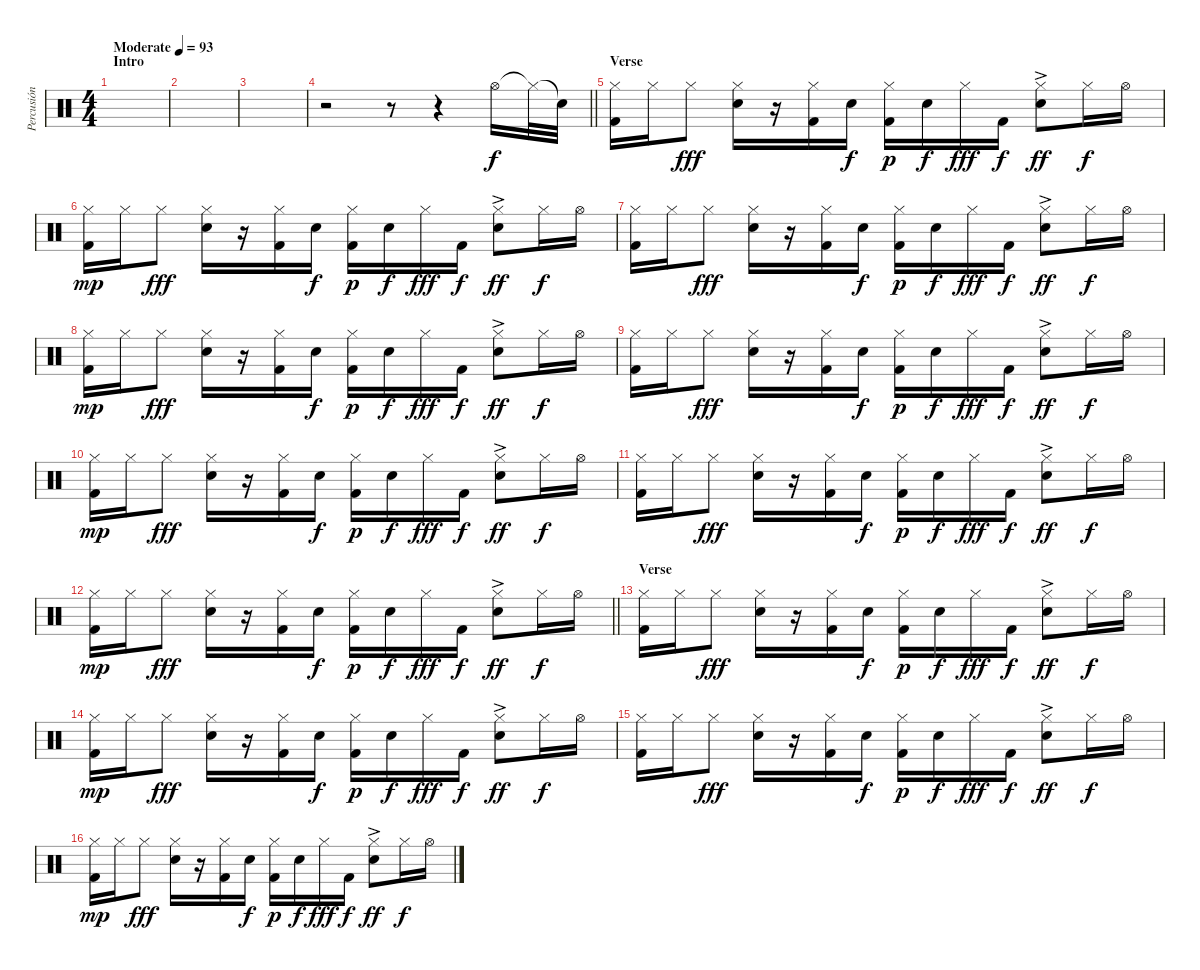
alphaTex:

\track ("Percusión" "Percusión") {instrument percussion}
\staff {score}
\articulation defaults
\ts (4 4)
\section ("" "Intro")
\tempo (93 "Moderate")
\clef neutral
\ks c
|
|
|
\barLineRight lightlight
r.2 r.8 r.4 "Hi-Hat (open)".16 "Hi-Hat (closed)"{t}.32 "Snare (hit)"{t}.32 |
\section ("" "Verse")
("Hi-Hat (closed)" "Kick (hit) 2").16 "Hi-Hat (closed)".16 "Hi-Hat (closed)".8{dy fff} ("Hi-Hat (closed)" "Snare (hit) 2").16 r.16 ("Hi-Hat (closed)" "Kick (hit) 2").16 "Snare (hit) 2".16{dy f} ("Hi-Hat (closed)" "Kick (hit) 2").16{dy p} "Snare (hit) 2".16{dy f} "Hi-Hat (closed)".16{dy fff} "Kick (hit) 2".16{dy f} ("Hi-Hat (closed)" "Snare (hit) 2"{ac}).8{dy ff} "Hi-Hat (closed)".16{dy f} "Hi-Hat (open)".16 |
("Hi-Hat (closed)" "Kick (hit) 2").16{dy mp} "Hi-Hat (closed)".16 "Hi-Hat (closed)".8{dy fff} ("Hi-Hat (closed)" "Snare (hit) 2").16 r.16 ("Hi-Hat (closed)" "Kick (hit) 2").16 "Snare (hit) 2".16{dy f} ("Hi-Hat (closed)" "Kick (hit) 2").16{dy p} "Snare (hit) 2".16{dy f} "Hi-Hat (closed)".16{dy fff} "Kick (hit) 2".16{dy f} ("Hi-Hat (closed)" "Snare (hit) 2"{ac}).8{dy ff} "Hi-Hat (closed)".16{dy f} "Hi-Hat (open)".16 |
("Hi-Hat (closed)" "Kick (hit) 2").16 "Hi-Hat (closed)".16 "Hi-Hat (closed)".8{dy fff} ("Hi-Hat (closed)" "Snare (hit) 2").16 r.16 ("Hi-Hat (closed)" "Kick (hit) 2").16 "Snare (hit) 2".16{dy f} ("Hi-Hat (closed)" "Kick (hit) 2").16{dy p} "Snare (hit) 2".16{dy f} "Hi-Hat (closed)".16{dy fff} "Kick (hit) 2".16{dy f} ("Hi-Hat (closed)" "Snare (hit) 2"{ac}).8{dy ff} "Hi-Hat (closed)".16{dy f} "Hi-Hat (open)".16 |
("Hi-Hat (closed)" "Kick (hit) 2").16{dy mp} "Hi-Hat (closed)".16 "Hi-Hat (closed)".8{dy fff} ("Hi-Hat (closed)" "Snare (hit) 2").16 r.16 ("Hi-Hat (closed)" "Kick (hit) 2").16 "Snare (hit) 2".16{dy f} ("Hi-Hat (closed)" "Kick (hit) 2").16{dy p} "Snare (hit) 2".16{dy f} "Hi-Hat (closed)".16{dy fff} "Kick (hit) 2".16{dy f} ("Hi-Hat (closed)" "Snare (hit) 2"{ac}).8{dy ff} "Hi-Hat (closed)".16{dy f} "Hi-Hat (open)".16 |
("Hi-Hat (closed)" "Kick (hit) 2").16 "Hi-Hat (closed)".16 "Hi-Hat (closed)".8{dy fff} ("Hi-Hat (closed)" "Snare (hit) 2").16 r.16 ("Hi-Hat (closed)" "Kick (hit) 2").16 "Snare (hit) 2".16{dy f} ("Hi-Hat (closed)" "Kick (hit) 2").16{dy p} "Snare (hit) 2".16{dy f} "Hi-Hat (closed)".16{dy fff} "Kick (hit) 2".16{dy f} ("Hi-Hat (closed)" "Snare (hit) 2"{ac}).8{dy ff} "Hi-Hat (closed)".16{dy f} "Hi-Hat (open)".16 |
("Hi-Hat (closed)" "Kick (hit) 2").16{dy mp} "Hi-Hat (closed)".16 "Hi-Hat (closed)".8{dy fff} ("Hi-Hat (closed)" "Snare (hit) 2").16 r.16 ("Hi-Hat (closed)" "Kick (hit) 2").16 "Snare (hit) 2".16{dy f} ("Hi-Hat (closed)" "Kick (hit) 2").16{dy p} "Snare (hit) 2".16{dy f} "Hi-Hat (closed)".16{dy fff} "Kick (hit) 2".16{dy f} ("Hi-Hat (closed)" "Snare (hit) 2"{ac}).8{dy ff} "Hi-Hat (closed)".16{dy f} "Hi-Hat (open)".16 |
("Hi-Hat (closed)" "Kick (hit) 2").16 "Hi-Hat (closed)".16 "Hi-Hat (closed)".8{dy fff} ("Hi-Hat (closed)" "Snare (hit) 2").16 r.16 ("Hi-Hat (closed)" "Kick (hit) 2").16 "Snare (hit) 2".16{dy f} ("Hi-Hat (closed)" "Kick (hit) 2").16{dy p} "Snare (hit) 2".16{dy f} "Hi-Hat (closed)".16{dy fff} "Kick (hit) 2".16{dy f} ("Hi-Hat (closed)" "Snare (hit) 2"{ac}).8{dy ff} "Hi-Hat (closed)".16{dy f} "Hi-Hat (open)".16 |
\barLineRight lightlight
("Hi-Hat (closed)" "Kick (hit) 2").16{dy mp} "Hi-Hat (closed)".16 "Hi-Hat (closed)".8{dy fff} ("Hi-Hat (closed)" "Snare (hit) 2").16 r.16 ("Hi-Hat (closed)" "Kick (hit) 2").16 "Snare (hit) 2".16{dy f} ("Hi-Hat (closed)" "Kick (hit) 2").16{dy p} "Snare (hit) 2".16{dy f} "Hi-Hat (closed)".16{dy fff} "Kick (hit) 2".16{dy f} ("Hi-Hat (closed)" "Snare (hit) 2"{ac}).8{dy ff} "Hi-Hat (closed)".16{dy f} "Hi-Hat (open)".16 |
\section ("" "Verse")
("Hi-Hat (closed)" "Kick (hit) 2").16 "Hi-Hat (closed)".16 "Hi-Hat (closed)".8{dy fff} ("Hi-Hat (closed)" "Snare (hit) 2").16 r.16 ("Hi-Hat (closed)" "Kick (hit) 2").16 "Snare (hit) 2".16{dy f} ("Hi-Hat (closed)" "Kick (hit) 2").16{dy p} "Snare (hit) 2".16{dy f} "Hi-Hat (closed)".16{dy fff} "Kick (hit) 2".16{dy f} ("Hi-Hat (closed)" "Snare (hit) 2"{ac}).8{dy ff} "Hi-Hat (closed)".16{dy f} "Hi-Hat (open)".16 |
("Hi-Hat (closed)" "Kick (hit) 2").16{dy mp} "Hi-Hat (closed)".16 "Hi-Hat (closed)".8{dy fff} ("Hi-Hat (closed)" "Snare (hit) 2").16 r.16 ("Hi-Hat (closed)" "Kick (hit) 2").16 "Snare (hit) 2".16{dy f} ("Hi-Hat (closed)" "Kick (hit) 2").16{dy p} "Snare (hit) 2".16{dy f} "Hi-Hat (closed)".16{dy fff} "Kick (hit) 2".16{dy f} ("Hi-Hat (closed)" "Snare (hit) 2"{ac}).8{dy ff} "Hi-Hat (closed)".16{dy f} "Hi-Hat (open)".16 |
("Hi-Hat (closed)" "Kick (hit) 2").16 "Hi-Hat (closed)".16 "Hi-Hat (closed)".8{dy fff} ("Hi-Hat (closed)" "Snare (hit) 2").16 r.16 ("Hi-Hat (closed)" "Kick (hit) 2").16 "Snare (hit) 2".16{dy f} ("Hi-Hat (closed)" "Kick (hit) 2").16{dy p} "Snare (hit) 2".16{dy f} "Hi-Hat (closed)".16{dy fff} "Kick (hit) 2".16{dy f} ("Hi-Hat (closed)" "Snare (hit) 2"{ac}).8{dy ff} "Hi-Hat (closed)".16{dy f} "Hi-Hat (open)".16 |
("Hi-Hat (closed)" "Kick (hit) 2").16{dy mp} "Hi-Hat (closed)".16 "Hi-Hat (closed)".8{dy fff} ("Hi-Hat (closed)" "Snare (hit) 2").16 r.16 ("Hi-Hat (closed)" "Kick (hit) 2").16 "Snare (hit) 2".16{dy f} ("Hi-Hat (closed)" "Kick (hit) 2").16{dy p} "Snare (hit) 2".16{dy f} "Hi-Hat (closed)".16{dy fff} "Kick (hit) 2".16{dy f} ("Hi-Hat (closed)" "Snare (hit) 2"{ac}).8{dy ff} "Hi-Hat (closed)".16{dy f} "Hi-Hat (open)".16
